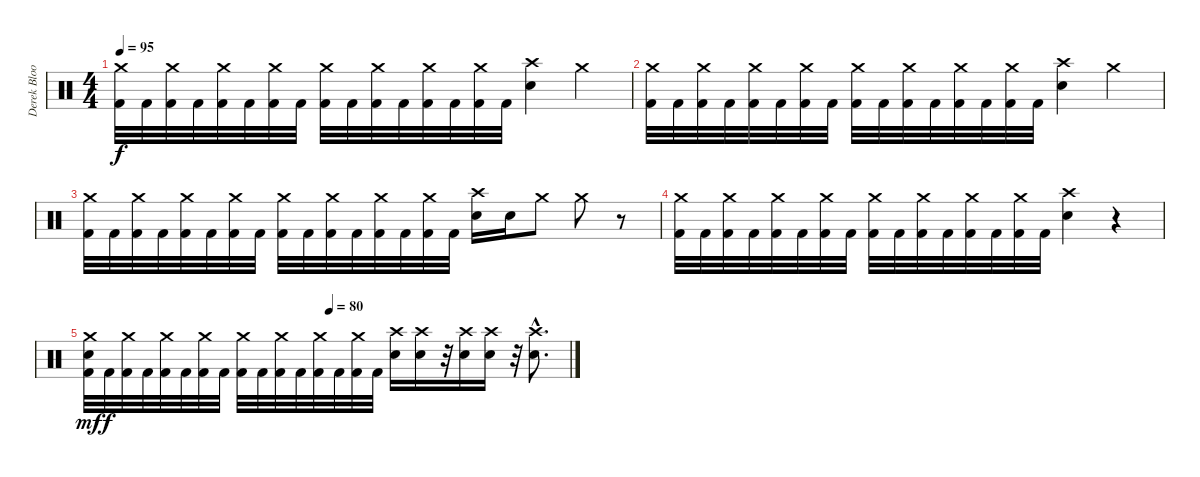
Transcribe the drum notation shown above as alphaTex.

\track ("Derek Bloom (Drums)" "Derek Bloo") {instrument percussion}
\staff {score}
\articulation defaults
\ts (4 4)
\tempo 95
\clef neutral
\ks c
("Crash medium (hit)" "Kick (hit) 2").32{dy f} "Kick (hit) 2".32 ("Crash medium (hit)" "Kick (hit) 2").32 "Kick (hit) 2".32 ("Crash medium (hit)" "Kick (hit) 2").32 "Kick (hit) 2".32 ("Crash medium (hit)" "Kick (hit) 2").32 "Kick (hit) 2".32 ("Crash medium (hit)" "Kick (hit) 2").32 "Kick (hit) 2".32 ("Crash medium (hit)" "Kick (hit) 2").32 "Kick (hit) 2".32 ("Crash medium (hit)" "Kick (hit) 2").32 "Kick (hit) 2".32 ("Crash medium (hit)" "Kick (hit) 2").32 "Kick (hit) 2".32 ("Crash high (hit)" "Electric Snare (hit)").4 "Crash medium (hit)".4 |
("Crash medium (hit)" "Kick (hit) 2").32 "Kick (hit) 2".32 ("Crash medium (hit)" "Kick (hit) 2").32 "Kick (hit) 2".32 ("Crash medium (hit)" "Kick (hit) 2").32 "Kick (hit) 2".32 ("Crash medium (hit)" "Kick (hit) 2").32 "Kick (hit) 2".32 ("Crash medium (hit)" "Kick (hit) 2").32 "Kick (hit) 2".32 ("Crash medium (hit)" "Kick (hit) 2").32 "Kick (hit) 2".32 ("Crash medium (hit)" "Kick (hit) 2").32 "Kick (hit) 2".32 ("Crash medium (hit)" "Kick (hit) 2").32 "Kick (hit) 2".32 ("Crash high (hit)" "Electric Snare (hit)").4 "Crash medium (hit)".4 |
("Crash medium (hit)" "Kick (hit) 2").32 "Kick (hit) 2".32 ("Crash medium (hit)" "Kick (hit) 2").32 "Kick (hit) 2".32 ("Crash medium (hit)" "Kick (hit) 2").32 "Kick (hit) 2".32 ("Crash medium (hit)" "Kick (hit) 2").32 "Kick (hit) 2".32 ("Crash medium (hit)" "Kick (hit) 2").32 "Kick (hit) 2".32 ("Crash medium (hit)" "Kick (hit) 2").32 "Kick (hit) 2".32 ("Crash medium (hit)" "Kick (hit) 2").32 "Kick (hit) 2".32 ("Crash medium (hit)" "Kick (hit) 2").32 "Kick (hit) 2".32 ("Crash high (hit)" "Electric Snare (hit)").16 "Electric Snare (hit)".16 "Crash medium (hit)".8 "Crash medium (hit)".8 r.8 |
("Crash medium (hit)" "Kick (hit) 2").32 "Kick (hit) 2".32 ("Crash medium (hit)" "Kick (hit) 2").32 "Kick (hit) 2".32 ("Crash medium (hit)" "Kick (hit) 2").32 "Kick (hit) 2".32 ("Crash medium (hit)" "Kick (hit) 2").32 "Kick (hit) 2".32 ("Crash medium (hit)" "Kick (hit) 2").32 "Kick (hit) 2".32 ("Crash medium (hit)" "Kick (hit) 2").32 "Kick (hit) 2".32 ("Crash medium (hit)" "Kick (hit) 2").32 "Kick (hit) 2".32 ("Crash medium (hit)" "Kick (hit) 2").32 "Kick (hit) 2".32 ("Crash high (hit)" "Electric Snare (hit)").4 r.4 |
\tempo (80 0.5)
("Crash medium (hit)" "Electric Snare (hit)" "Kick (hit) 2").32{dy mf} "Kick (hit) 2".32{dy f} ("Crash medium (hit)" "Kick (hit) 2").32 "Kick (hit) 2".32 ("Crash medium (hit)" "Kick (hit) 2").32 "Kick (hit) 2".32 ("Crash medium (hit)" "Kick (hit) 2").32 "Kick (hit) 2".32 ("Crash medium (hit)" "Kick (hit) 2").32 "Kick (hit) 2".32 ("Crash medium (hit)" "Kick (hit) 2").32 "Kick (hit) 2".32 ("Crash medium (hit)" "Kick (hit) 2").32 "Kick (hit) 2".32 ("Crash medium (hit)" "Kick (hit) 2").32 "Kick (hit) 2".32 ("Crash high (hit)" "Electric Snare (hit)").16 ("Crash high (hit)" "Electric Snare (hit)").16 r.32 ("Crash high (hit)" "Electric Snare (hit)").16 ("Crash high (hit)" "Electric Snare (hit)").16 r.32 ("Crash high (hit)"{hac} "Electric Snare (hit)"{hac}).8{d}
